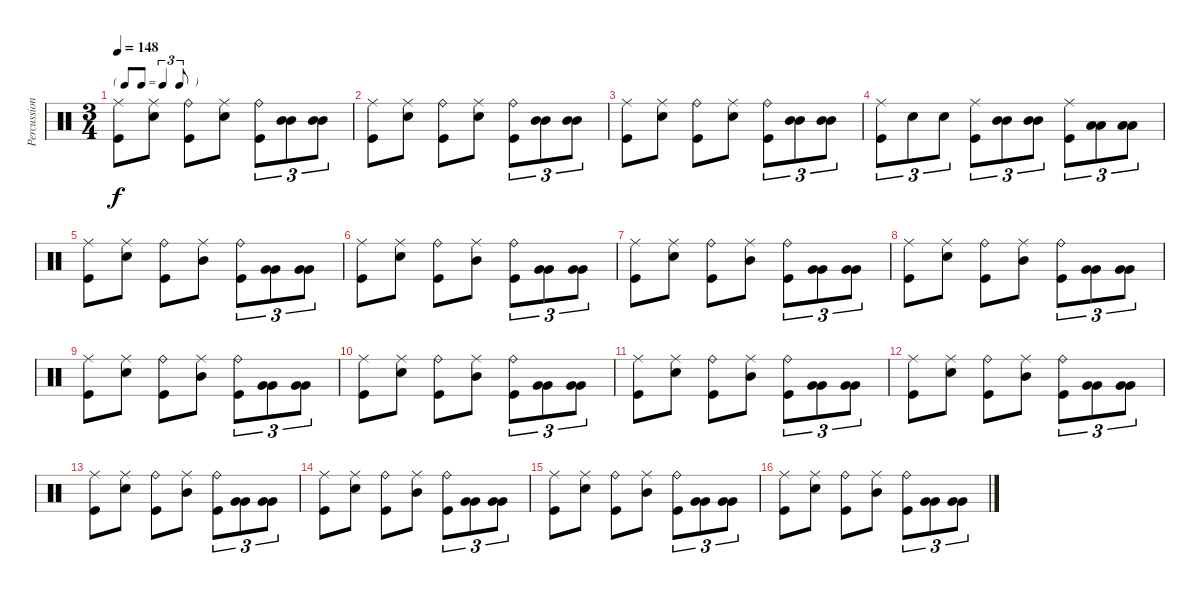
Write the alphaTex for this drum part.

\track ("Percussions" "Percussion") {instrument percussion}
\staff {score}
\articulation defaults
\ts (3 4)
\tf triplet8th
\tempo 148
\clef neutral
\ks c
("Ride (middle)" "Kick (hit)").8{dy f} ("Ride (middle)" "Electric Snare (hit)").8 ("Ride (bell)" "Kick (hit)").8 ("Ride (middle)" "Electric Snare (hit)").8 ("Ride (bell)" "Kick (hit)").8{tu (3 2)} ("Mid Tom (hit)" "Mid Tom (hit)").8{tu (3 2)} ("Mid Tom (hit)" "Mid Tom (hit)").8{tu (3 2)} |
("Ride (middle)" "Kick (hit)").8 ("Ride (middle)" "Electric Snare (hit)").8 ("Ride (bell)" "Kick (hit)").8 ("Ride (middle)" "Electric Snare (hit)").8 ("Ride (bell)" "Kick (hit)").8{tu (3 2)} ("Mid Tom (hit)" "Mid Tom (hit)").8{tu (3 2)} ("Mid Tom (hit)" "Mid Tom (hit)").8{tu (3 2)} |
("Ride (middle)" "Kick (hit)").8 ("Ride (middle)" "Electric Snare (hit)").8 ("Ride (bell)" "Kick (hit)").8 ("Ride (middle)" "Electric Snare (hit)").8 ("Ride (bell)" "Kick (hit)").8{tu (3 2)} ("Mid Tom (hit)" "Mid Tom (hit)").8{tu (3 2)} ("Mid Tom (hit)" "Mid Tom (hit)").8{tu (3 2)} |
("Ride (middle)" "Kick (hit)").8{tu (3 2)} "Electric Snare (hit)".8{tu (3 2)} "Electric Snare (hit)".8{tu (3 2)} ("Ride (middle)" "Kick (hit)").8{tu (3 2)} ("Mid Tom (hit)" "Mid Tom (hit)").8{tu (3 2)} ("Mid Tom (hit)" "Mid Tom (hit)").8{tu (3 2)} ("Ride (middle)" "Kick (hit)").8{tu (3 2)} ("Low Tom (hit)" "Low Tom (hit)").8{tu (3 2)} ("Low Tom (hit)" "Low Tom (hit)").8{tu (3 2)} |
("Ride (middle)" "Kick (hit)").8 ("Ride (middle)" "Electric Snare (hit)").8 ("Ride (bell)" "Kick (hit)").8 ("Ride (middle)" "Mid Tom (hit)").8 ("Ride (bell)" "Kick (hit)").8{tu (3 2)} ("Very Low Tom (hit)" "Very Low Tom (hit)").8{tu (3 2)} ("Very Low Tom (hit)" "Very Low Tom (hit)").8{tu (3 2)} |
("Ride (middle)" "Kick (hit)").8 ("Ride (middle)" "Electric Snare (hit)").8 ("Ride (bell)" "Kick (hit)").8 ("Ride (middle)" "Mid Tom (hit)").8 ("Ride (bell)" "Kick (hit)").8{tu (3 2)} ("Very Low Tom (hit)" "Very Low Tom (hit)").8{tu (3 2)} ("Very Low Tom (hit)" "Very Low Tom (hit)").8{tu (3 2)} |
("Ride (middle)" "Kick (hit)").8 ("Ride (middle)" "Electric Snare (hit)").8 ("Ride (bell)" "Kick (hit)").8 ("Ride (middle)" "Mid Tom (hit)").8 ("Ride (bell)" "Kick (hit)").8{tu (3 2)} ("Very Low Tom (hit)" "Very Low Tom (hit)").8{tu (3 2)} ("Very Low Tom (hit)" "Very Low Tom (hit)").8{tu (3 2)} |
("Ride (middle)" "Kick (hit)").8 ("Ride (middle)" "Electric Snare (hit)").8 ("Ride (bell)" "Kick (hit)").8 ("Ride (middle)" "Mid Tom (hit)").8 ("Ride (bell)" "Kick (hit)").8{tu (3 2)} ("Very Low Tom (hit)" "Very Low Tom (hit)").8{tu (3 2)} ("Very Low Tom (hit)" "Very Low Tom (hit)").8{tu (3 2)} |
("Ride (middle)" "Kick (hit)").8 ("Ride (middle)" "Electric Snare (hit)").8 ("Ride (bell)" "Kick (hit)").8 ("Ride (middle)" "Mid Tom (hit)").8 ("Ride (bell)" "Kick (hit)").8{tu (3 2)} ("Very Low Tom (hit)" "Very Low Tom (hit)").8{tu (3 2)} ("Very Low Tom (hit)" "Very Low Tom (hit)").8{tu (3 2)} |
("Ride (middle)" "Kick (hit)").8 ("Ride (middle)" "Electric Snare (hit)").8 ("Ride (bell)" "Kick (hit)").8 ("Ride (middle)" "Mid Tom (hit)").8 ("Ride (bell)" "Kick (hit)").8{tu (3 2)} ("Very Low Tom (hit)" "Very Low Tom (hit)").8{tu (3 2)} ("Very Low Tom (hit)" "Very Low Tom (hit)").8{tu (3 2)} |
("Ride (middle)" "Kick (hit)").8 ("Ride (middle)" "Electric Snare (hit)").8 ("Ride (bell)" "Kick (hit)").8 ("Ride (middle)" "Mid Tom (hit)").8 ("Ride (bell)" "Kick (hit)").8{tu (3 2)} ("Very Low Tom (hit)" "Very Low Tom (hit)").8{tu (3 2)} ("Very Low Tom (hit)" "Very Low Tom (hit)").8{tu (3 2)} |
("Ride (middle)" "Kick (hit)").8 ("Ride (middle)" "Electric Snare (hit)").8 ("Ride (bell)" "Kick (hit)").8 ("Ride (middle)" "Mid Tom (hit)").8 ("Ride (bell)" "Kick (hit)").8{tu (3 2)} ("Very Low Tom (hit)" "Very Low Tom (hit)").8{tu (3 2)} ("Very Low Tom (hit)" "Very Low Tom (hit)").8{tu (3 2)} |
("Ride (middle)" "Kick (hit)").8 ("Ride (middle)" "Electric Snare (hit)").8 ("Ride (bell)" "Kick (hit)").8 ("Ride (middle)" "Mid Tom (hit)").8 ("Ride (bell)" "Kick (hit)").8{tu (3 2)} ("Very Low Tom (hit)" "Very Low Tom (hit)").8{tu (3 2)} ("Very Low Tom (hit)" "Very Low Tom (hit)").8{tu (3 2)} |
("Ride (middle)" "Kick (hit)").8 ("Ride (middle)" "Electric Snare (hit)").8 ("Ride (bell)" "Kick (hit)").8 ("Ride (middle)" "Mid Tom (hit)").8 ("Ride (bell)" "Kick (hit)").8{tu (3 2)} ("Very Low Tom (hit)" "Very Low Tom (hit)").8{tu (3 2)} ("Very Low Tom (hit)" "Very Low Tom (hit)").8{tu (3 2)} |
("Ride (middle)" "Kick (hit)").8 ("Ride (middle)" "Electric Snare (hit)").8 ("Ride (bell)" "Kick (hit)").8 ("Ride (middle)" "Mid Tom (hit)").8 ("Ride (bell)" "Kick (hit)").8{tu (3 2)} ("Very Low Tom (hit)" "Very Low Tom (hit)").8{tu (3 2)} ("Very Low Tom (hit)" "Very Low Tom (hit)").8{tu (3 2)} |
("Ride (middle)" "Kick (hit)").8 ("Ride (middle)" "Electric Snare (hit)").8 ("Ride (bell)" "Kick (hit)").8 ("Ride (middle)" "Mid Tom (hit)").8 ("Ride (bell)" "Kick (hit)").8{tu (3 2)} ("Very Low Tom (hit)" "Very Low Tom (hit)").8{tu (3 2)} ("Very Low Tom (hit)" "Very Low Tom (hit)").8{tu (3 2)}
